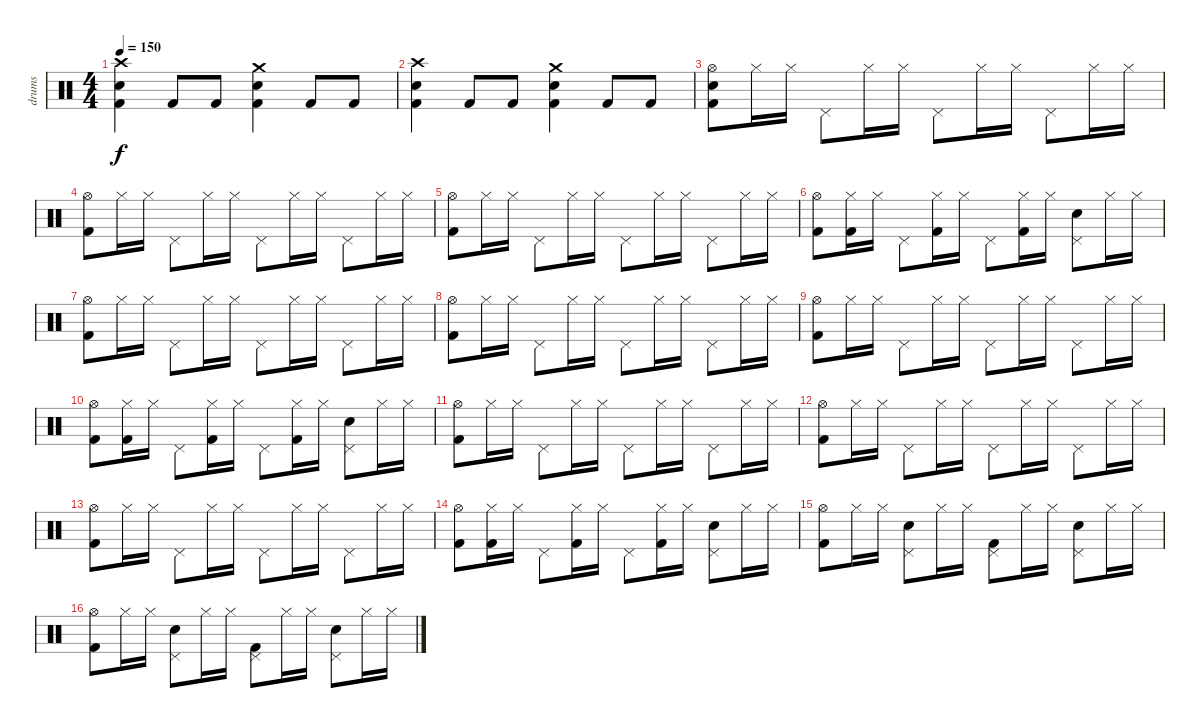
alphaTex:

\track ("drums" "drums") {instrument percussion}
\staff {score}
\articulation defaults
\ts (4 4)
\tempo 150
\clef neutral
\ks c
("Crash high (hit)" "Snare (hit) 2" "Kick (hit) 2").4{dy f} "Kick (hit) 2".8 "Kick (hit) 2".8 ("Crash medium (hit)" "Snare (hit) 2" "Kick (hit) 2").4 "Kick (hit) 2".8 "Kick (hit) 2".8 |
("Crash high (hit)" "Snare (hit) 2" "Kick (hit) 2").4 "Kick (hit) 2".8 "Kick (hit) 2".8 ("Crash medium (hit)" "Snare (hit) 2" "Kick (hit) 2").4 "Kick (hit) 2".8 "Kick (hit) 2".8 |
("Hi-Hat (open)" "Snare (hit) 2" "Kick (hit) 2").8 "Hi-Hat (closed)".16 "Hi-Hat (closed)".16 "Pedal Hi-Hat (hit)".8 "Hi-Hat (closed)".16 "Hi-Hat (closed)".16 "Pedal Hi-Hat (hit)".8 "Hi-Hat (closed)".16 "Hi-Hat (closed)".16 "Pedal Hi-Hat (hit)".8 "Hi-Hat (closed)".16 "Hi-Hat (closed)".16 |
("Hi-Hat (open)" "Kick (hit) 2").8 "Hi-Hat (closed)".16 "Hi-Hat (closed)".16 "Pedal Hi-Hat (hit)".8 "Hi-Hat (closed)".16 "Hi-Hat (closed)".16 "Pedal Hi-Hat (hit)".8 "Hi-Hat (closed)".16 "Hi-Hat (closed)".16 "Pedal Hi-Hat (hit)".8 "Hi-Hat (closed)".16 "Hi-Hat (closed)".16 |
("Hi-Hat (open)" "Kick (hit) 2").8 "Hi-Hat (closed)".16 "Hi-Hat (closed)".16 "Pedal Hi-Hat (hit)".8 "Hi-Hat (closed)".16 "Hi-Hat (closed)".16 "Pedal Hi-Hat (hit)".8 "Hi-Hat (closed)".16 "Hi-Hat (closed)".16 "Pedal Hi-Hat (hit)".8 "Hi-Hat (closed)".16 "Hi-Hat (closed)".16 |
("Hi-Hat (open)" "Kick (hit) 2").8 ("Hi-Hat (closed)" "Kick (hit) 2").16 "Hi-Hat (closed)".16 "Pedal Hi-Hat (hit)".8 ("Hi-Hat (closed)" "Kick (hit) 2").16 "Hi-Hat (closed)".16 "Pedal Hi-Hat (hit)".8 ("Hi-Hat (closed)" "Kick (hit) 2").16 "Hi-Hat (closed)".16 ("Pedal Hi-Hat (hit)" "Snare (hit) 2").8 "Hi-Hat (closed)".16 "Hi-Hat (closed)".16 |
("Hi-Hat (open)" "Kick (hit) 2").8 "Hi-Hat (closed)".16 "Hi-Hat (closed)".16 "Pedal Hi-Hat (hit)".8 "Hi-Hat (closed)".16 "Hi-Hat (closed)".16 "Pedal Hi-Hat (hit)".8 "Hi-Hat (closed)".16 "Hi-Hat (closed)".16 "Pedal Hi-Hat (hit)".8 "Hi-Hat (closed)".16 "Hi-Hat (closed)".16 |
("Hi-Hat (open)" "Kick (hit) 2").8 "Hi-Hat (closed)".16 "Hi-Hat (closed)".16 "Pedal Hi-Hat (hit)".8 "Hi-Hat (closed)".16 "Hi-Hat (closed)".16 "Pedal Hi-Hat (hit)".8 "Hi-Hat (closed)".16 "Hi-Hat (closed)".16 "Pedal Hi-Hat (hit)".8 "Hi-Hat (closed)".16 "Hi-Hat (closed)".16 |
("Hi-Hat (open)" "Kick (hit) 2").8 "Hi-Hat (closed)".16 "Hi-Hat (closed)".16 "Pedal Hi-Hat (hit)".8 "Hi-Hat (closed)".16 "Hi-Hat (closed)".16 "Pedal Hi-Hat (hit)".8 "Hi-Hat (closed)".16 "Hi-Hat (closed)".16 "Pedal Hi-Hat (hit)".8 "Hi-Hat (closed)".16 "Hi-Hat (closed)".16 |
("Hi-Hat (open)" "Kick (hit) 2").8 ("Hi-Hat (closed)" "Kick (hit) 2").16 "Hi-Hat (closed)".16 "Pedal Hi-Hat (hit)".8 ("Hi-Hat (closed)" "Kick (hit) 2").16 "Hi-Hat (closed)".16 "Pedal Hi-Hat (hit)".8 ("Hi-Hat (closed)" "Kick (hit) 2").16 "Hi-Hat (closed)".16 ("Pedal Hi-Hat (hit)" "Snare (hit) 2").8 "Hi-Hat (closed)".16 "Hi-Hat (closed)".16 |
("Hi-Hat (open)" "Kick (hit) 2").8 "Hi-Hat (closed)".16 "Hi-Hat (closed)".16 "Pedal Hi-Hat (hit)".8 "Hi-Hat (closed)".16 "Hi-Hat (closed)".16 "Pedal Hi-Hat (hit)".8 "Hi-Hat (closed)".16 "Hi-Hat (closed)".16 "Pedal Hi-Hat (hit)".8 "Hi-Hat (closed)".16 "Hi-Hat (closed)".16 |
("Hi-Hat (open)" "Kick (hit) 2").8 "Hi-Hat (closed)".16 "Hi-Hat (closed)".16 "Pedal Hi-Hat (hit)".8 "Hi-Hat (closed)".16 "Hi-Hat (closed)".16 "Pedal Hi-Hat (hit)".8 "Hi-Hat (closed)".16 "Hi-Hat (closed)".16 "Pedal Hi-Hat (hit)".8 "Hi-Hat (closed)".16 "Hi-Hat (closed)".16 |
("Hi-Hat (open)" "Kick (hit) 2").8 "Hi-Hat (closed)".16 "Hi-Hat (closed)".16 "Pedal Hi-Hat (hit)".8 "Hi-Hat (closed)".16 "Hi-Hat (closed)".16 "Pedal Hi-Hat (hit)".8 "Hi-Hat (closed)".16 "Hi-Hat (closed)".16 "Pedal Hi-Hat (hit)".8 "Hi-Hat (closed)".16 "Hi-Hat (closed)".16 |
("Hi-Hat (open)" "Kick (hit) 2").8 ("Hi-Hat (closed)" "Kick (hit) 2").16 "Hi-Hat (closed)".16 "Pedal Hi-Hat (hit)".8 ("Hi-Hat (closed)" "Kick (hit) 2").16 "Hi-Hat (closed)".16 "Pedal Hi-Hat (hit)".8 ("Hi-Hat (closed)" "Kick (hit) 2").16 "Hi-Hat (closed)".16 ("Pedal Hi-Hat (hit)" "Snare (hit) 2").8 "Hi-Hat (closed)".16 "Hi-Hat (closed)".16 |
("Hi-Hat (open)" "Kick (hit) 2").8 "Hi-Hat (closed)".16 "Hi-Hat (closed)".16 ("Pedal Hi-Hat (hit)" "Snare (hit) 2").8 "Hi-Hat (closed)".16 "Hi-Hat (closed)".16 ("Pedal Hi-Hat (hit)" "Kick (hit) 2").8 "Hi-Hat (closed)".16 "Hi-Hat (closed)".16 ("Pedal Hi-Hat (hit)" "Snare (hit) 2").8 "Hi-Hat (closed)".16 "Hi-Hat (closed)".16 |
("Hi-Hat (open)" "Kick (hit) 2").8 "Hi-Hat (closed)".16 "Hi-Hat (closed)".16 ("Pedal Hi-Hat (hit)" "Snare (hit) 2").8 "Hi-Hat (closed)".16 "Hi-Hat (closed)".16 ("Pedal Hi-Hat (hit)" "Kick (hit) 2").8 "Hi-Hat (closed)".16 "Hi-Hat (closed)".16 ("Pedal Hi-Hat (hit)" "Snare (hit) 2").8 "Hi-Hat (closed)".16 "Hi-Hat (closed)".16
